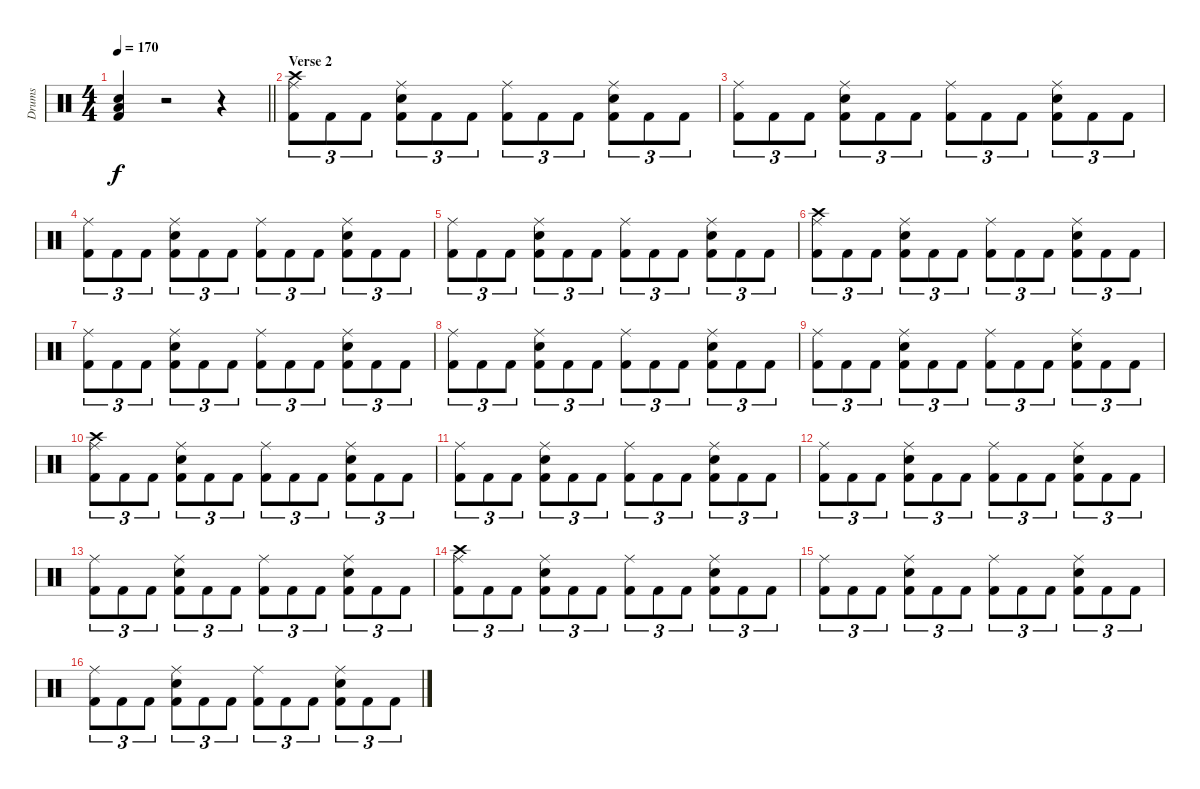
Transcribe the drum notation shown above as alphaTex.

\track ("Drums" "Drums") {instrument percussion}
\staff {score}
\articulation defaults
\ts (4 4)
\tempo 170
\clef neutral
\barLineRight lightlight
\ks c
("Low Floor Tom (hit)" "Snare (hit) 2" "Kick (hit) 2").4{dy f} r.2 r.4 |
\section ("" "Verse 2")
("Crash high (hit)" "Ride (middle)" "Kick (hit) 2").8{tu (3 2)} "Kick (hit) 2".8{tu (3 2)} "Kick (hit) 2".8{tu (3 2)} ("Ride (middle)" "Snare (hit) 2" "Kick (hit) 2").8{tu (3 2)} "Kick (hit) 2".8{tu (3 2)} "Kick (hit) 2".8{tu (3 2)} ("Ride (middle)" "Kick (hit) 2").8{tu (3 2)} "Kick (hit) 2".8{tu (3 2)} "Kick (hit) 2".8{tu (3 2)} ("Ride (middle)" "Snare (hit) 2" "Kick (hit) 2").8{tu (3 2)} "Kick (hit) 2".8{tu (3 2)} "Kick (hit) 2".8{tu (3 2)} |
("Ride (middle)" "Kick (hit) 2").8{tu (3 2)} "Kick (hit) 2".8{tu (3 2)} "Kick (hit) 2".8{tu (3 2)} ("Ride (middle)" "Snare (hit) 2" "Kick (hit) 2").8{tu (3 2)} "Kick (hit) 2".8{tu (3 2)} "Kick (hit) 2".8{tu (3 2)} ("Ride (middle)" "Kick (hit) 2").8{tu (3 2)} "Kick (hit) 2".8{tu (3 2)} "Kick (hit) 2".8{tu (3 2)} ("Ride (middle)" "Snare (hit) 2" "Kick (hit) 2").8{tu (3 2)} "Kick (hit) 2".8{tu (3 2)} "Kick (hit) 2".8{tu (3 2)} |
("Ride (middle)" "Kick (hit) 2").8{tu (3 2)} "Kick (hit) 2".8{tu (3 2)} "Kick (hit) 2".8{tu (3 2)} ("Ride (middle)" "Snare (hit) 2" "Kick (hit) 2").8{tu (3 2)} "Kick (hit) 2".8{tu (3 2)} "Kick (hit) 2".8{tu (3 2)} ("Ride (middle)" "Kick (hit) 2").8{tu (3 2)} "Kick (hit) 2".8{tu (3 2)} "Kick (hit) 2".8{tu (3 2)} ("Ride (middle)" "Snare (hit) 2" "Kick (hit) 2").8{tu (3 2)} "Kick (hit) 2".8{tu (3 2)} "Kick (hit) 2".8{tu (3 2)} |
("Ride (middle)" "Kick (hit) 2").8{tu (3 2)} "Kick (hit) 2".8{tu (3 2)} "Kick (hit) 2".8{tu (3 2)} ("Ride (middle)" "Snare (hit) 2" "Kick (hit) 2").8{tu (3 2)} "Kick (hit) 2".8{tu (3 2)} "Kick (hit) 2".8{tu (3 2)} ("Ride (middle)" "Kick (hit) 2").8{tu (3 2)} "Kick (hit) 2".8{tu (3 2)} "Kick (hit) 2".8{tu (3 2)} ("Ride (middle)" "Snare (hit) 2" "Kick (hit) 2").8{tu (3 2)} "Kick (hit) 2".8{tu (3 2)} "Kick (hit) 2".8{tu (3 2)} |
("Crash high (hit)" "Ride (middle)" "Kick (hit) 2").8{tu (3 2)} "Kick (hit) 2".8{tu (3 2)} "Kick (hit) 2".8{tu (3 2)} ("Ride (middle)" "Snare (hit) 2" "Kick (hit) 2").8{tu (3 2)} "Kick (hit) 2".8{tu (3 2)} "Kick (hit) 2".8{tu (3 2)} ("Ride (middle)" "Kick (hit) 2").8{tu (3 2)} "Kick (hit) 2".8{tu (3 2)} "Kick (hit) 2".8{tu (3 2)} ("Ride (middle)" "Snare (hit) 2" "Kick (hit) 2").8{tu (3 2)} "Kick (hit) 2".8{tu (3 2)} "Kick (hit) 2".8{tu (3 2)} |
("Ride (middle)" "Kick (hit) 2").8{tu (3 2)} "Kick (hit) 2".8{tu (3 2)} "Kick (hit) 2".8{tu (3 2)} ("Ride (middle)" "Snare (hit) 2" "Kick (hit) 2").8{tu (3 2)} "Kick (hit) 2".8{tu (3 2)} "Kick (hit) 2".8{tu (3 2)} ("Ride (middle)" "Kick (hit) 2").8{tu (3 2)} "Kick (hit) 2".8{tu (3 2)} "Kick (hit) 2".8{tu (3 2)} ("Ride (middle)" "Snare (hit) 2" "Kick (hit) 2").8{tu (3 2)} "Kick (hit) 2".8{tu (3 2)} "Kick (hit) 2".8{tu (3 2)} |
("Ride (middle)" "Kick (hit) 2").8{tu (3 2)} "Kick (hit) 2".8{tu (3 2)} "Kick (hit) 2".8{tu (3 2)} ("Ride (middle)" "Snare (hit) 2" "Kick (hit) 2").8{tu (3 2)} "Kick (hit) 2".8{tu (3 2)} "Kick (hit) 2".8{tu (3 2)} ("Ride (middle)" "Kick (hit) 2").8{tu (3 2)} "Kick (hit) 2".8{tu (3 2)} "Kick (hit) 2".8{tu (3 2)} ("Ride (middle)" "Snare (hit) 2" "Kick (hit) 2").8{tu (3 2)} "Kick (hit) 2".8{tu (3 2)} "Kick (hit) 2".8{tu (3 2)} |
("Ride (middle)" "Kick (hit) 2").8{tu (3 2)} "Kick (hit) 2".8{tu (3 2)} "Kick (hit) 2".8{tu (3 2)} ("Ride (middle)" "Snare (hit) 2" "Kick (hit) 2").8{tu (3 2)} "Kick (hit) 2".8{tu (3 2)} "Kick (hit) 2".8{tu (3 2)} ("Ride (middle)" "Kick (hit) 2").8{tu (3 2)} "Kick (hit) 2".8{tu (3 2)} "Kick (hit) 2".8{tu (3 2)} ("Ride (middle)" "Snare (hit) 2" "Kick (hit) 2").8{tu (3 2)} "Kick (hit) 2".8{tu (3 2)} "Kick (hit) 2".8{tu (3 2)} |
("Crash high (hit)" "Ride (middle)" "Kick (hit) 2").8{tu (3 2)} "Kick (hit) 2".8{tu (3 2)} "Kick (hit) 2".8{tu (3 2)} ("Ride (middle)" "Snare (hit) 2" "Kick (hit) 2").8{tu (3 2)} "Kick (hit) 2".8{tu (3 2)} "Kick (hit) 2".8{tu (3 2)} ("Ride (middle)" "Kick (hit) 2").8{tu (3 2)} "Kick (hit) 2".8{tu (3 2)} "Kick (hit) 2".8{tu (3 2)} ("Ride (middle)" "Snare (hit) 2" "Kick (hit) 2").8{tu (3 2)} "Kick (hit) 2".8{tu (3 2)} "Kick (hit) 2".8{tu (3 2)} |
("Ride (middle)" "Kick (hit) 2").8{tu (3 2)} "Kick (hit) 2".8{tu (3 2)} "Kick (hit) 2".8{tu (3 2)} ("Ride (middle)" "Snare (hit) 2" "Kick (hit) 2").8{tu (3 2)} "Kick (hit) 2".8{tu (3 2)} "Kick (hit) 2".8{tu (3 2)} ("Ride (middle)" "Kick (hit) 2").8{tu (3 2)} "Kick (hit) 2".8{tu (3 2)} "Kick (hit) 2".8{tu (3 2)} ("Ride (middle)" "Snare (hit) 2" "Kick (hit) 2").8{tu (3 2)} "Kick (hit) 2".8{tu (3 2)} "Kick (hit) 2".8{tu (3 2)} |
("Ride (middle)" "Kick (hit) 2").8{tu (3 2)} "Kick (hit) 2".8{tu (3 2)} "Kick (hit) 2".8{tu (3 2)} ("Ride (middle)" "Snare (hit) 2" "Kick (hit) 2").8{tu (3 2)} "Kick (hit) 2".8{tu (3 2)} "Kick (hit) 2".8{tu (3 2)} ("Ride (middle)" "Kick (hit) 2").8{tu (3 2)} "Kick (hit) 2".8{tu (3 2)} "Kick (hit) 2".8{tu (3 2)} ("Ride (middle)" "Snare (hit) 2" "Kick (hit) 2").8{tu (3 2)} "Kick (hit) 2".8{tu (3 2)} "Kick (hit) 2".8{tu (3 2)} |
("Ride (middle)" "Kick (hit) 2").8{tu (3 2)} "Kick (hit) 2".8{tu (3 2)} "Kick (hit) 2".8{tu (3 2)} ("Ride (middle)" "Snare (hit) 2" "Kick (hit) 2").8{tu (3 2)} "Kick (hit) 2".8{tu (3 2)} "Kick (hit) 2".8{tu (3 2)} ("Ride (middle)" "Kick (hit) 2").8{tu (3 2)} "Kick (hit) 2".8{tu (3 2)} "Kick (hit) 2".8{tu (3 2)} ("Ride (middle)" "Snare (hit) 2" "Kick (hit) 2").8{tu (3 2)} "Kick (hit) 2".8{tu (3 2)} "Kick (hit) 2".8{tu (3 2)} |
("Crash high (hit)" "Ride (middle)" "Kick (hit) 2").8{tu (3 2)} "Kick (hit) 2".8{tu (3 2)} "Kick (hit) 2".8{tu (3 2)} ("Ride (middle)" "Snare (hit) 2" "Kick (hit) 2").8{tu (3 2)} "Kick (hit) 2".8{tu (3 2)} "Kick (hit) 2".8{tu (3 2)} ("Ride (middle)" "Kick (hit) 2").8{tu (3 2)} "Kick (hit) 2".8{tu (3 2)} "Kick (hit) 2".8{tu (3 2)} ("Ride (middle)" "Snare (hit) 2" "Kick (hit) 2").8{tu (3 2)} "Kick (hit) 2".8{tu (3 2)} "Kick (hit) 2".8{tu (3 2)} |
("Ride (middle)" "Kick (hit) 2").8{tu (3 2)} "Kick (hit) 2".8{tu (3 2)} "Kick (hit) 2".8{tu (3 2)} ("Ride (middle)" "Snare (hit) 2" "Kick (hit) 2").8{tu (3 2)} "Kick (hit) 2".8{tu (3 2)} "Kick (hit) 2".8{tu (3 2)} ("Ride (middle)" "Kick (hit) 2").8{tu (3 2)} "Kick (hit) 2".8{tu (3 2)} "Kick (hit) 2".8{tu (3 2)} ("Ride (middle)" "Snare (hit) 2" "Kick (hit) 2").8{tu (3 2)} "Kick (hit) 2".8{tu (3 2)} "Kick (hit) 2".8{tu (3 2)} |
("Ride (middle)" "Kick (hit) 2").8{tu (3 2)} "Kick (hit) 2".8{tu (3 2)} "Kick (hit) 2".8{tu (3 2)} ("Ride (middle)" "Snare (hit) 2" "Kick (hit) 2").8{tu (3 2)} "Kick (hit) 2".8{tu (3 2)} "Kick (hit) 2".8{tu (3 2)} ("Ride (middle)" "Kick (hit) 2").8{tu (3 2)} "Kick (hit) 2".8{tu (3 2)} "Kick (hit) 2".8{tu (3 2)} ("Ride (middle)" "Snare (hit) 2" "Kick (hit) 2").8{tu (3 2)} "Kick (hit) 2".8{tu (3 2)} "Kick (hit) 2".8{tu (3 2)}
